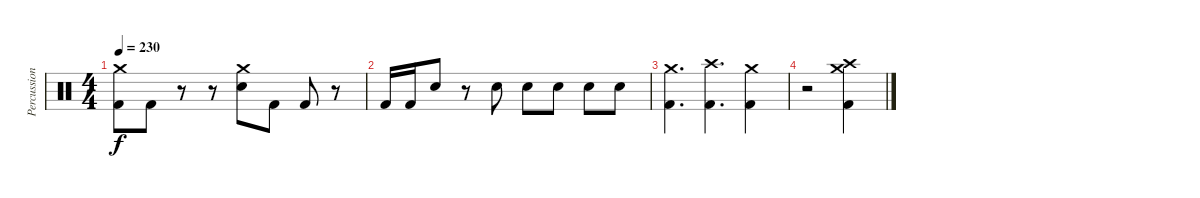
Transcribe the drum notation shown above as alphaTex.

\track ("Percussions" "Percussion") {instrument percussion}
\staff {score}
\articulation defaults
\ts (4 4)
\tempo 230
\clef neutral
\ks c
("Kick (hit) 2" "Crash medium (hit)").8{dy f} "Kick (hit) 2".8 r.8 r.8 ("Electric Snare (hit)" "Crash medium (hit)").8 "Kick (hit) 2".8 "Kick (hit) 2".8 r.8 |
"Kick (hit) 2".16 "Kick (hit) 2".16 "Electric Snare (hit)".8 r.8 "Electric Snare (hit)".8 "Electric Snare (hit)".8 "Electric Snare (hit)".8 "Electric Snare (hit)".8 "Electric Snare (hit)".8 |
("Kick (hit) 2" "Crash medium (hit)").4{d} ("Kick (hit) 2" "Crash high (hit)").4{d} ("Kick (hit) 2" "Crash medium (hit)").4 |
r.2 ("Kick (hit) 2" "Crash high (hit)" "Crash medium (hit)").4
